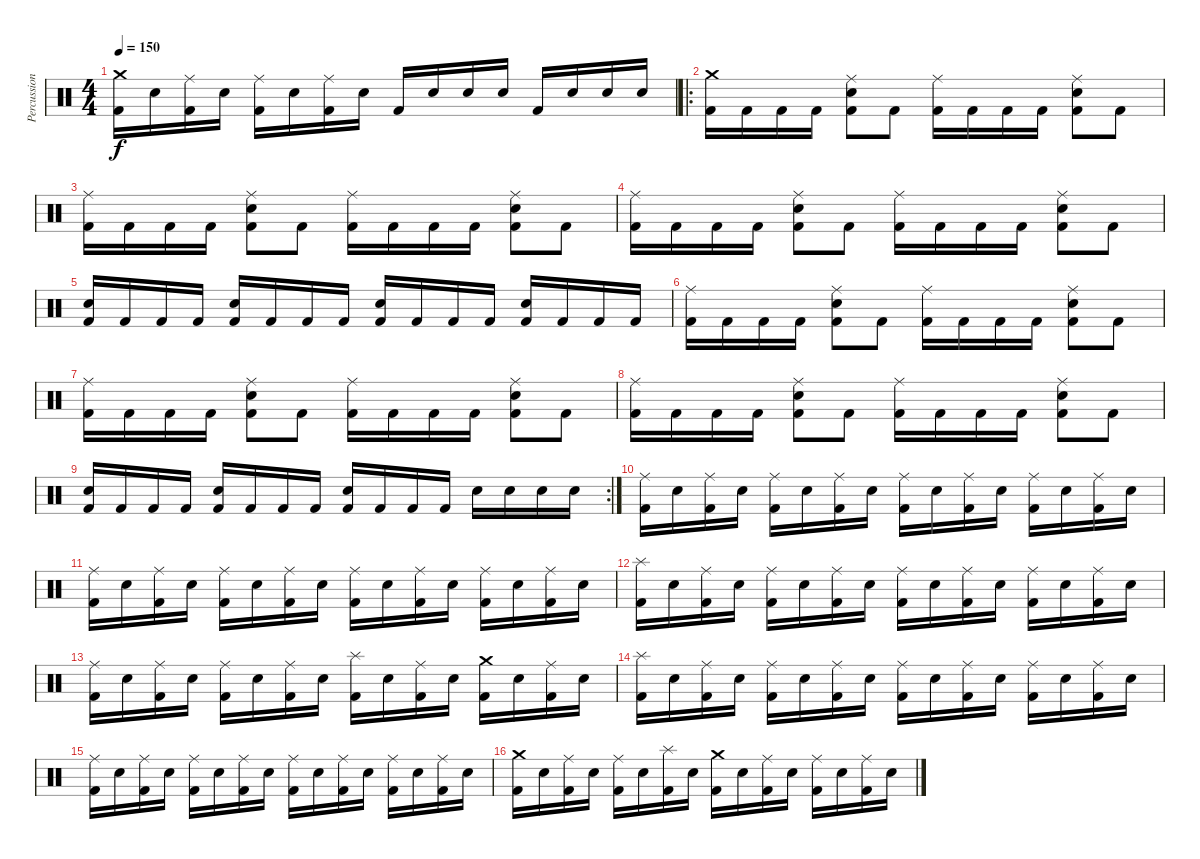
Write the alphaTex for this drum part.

\track ("Percussions" "Percussion") {instrument percussion}
\staff {score}
\articulation defaults
\ts (4 4)
\tempo 150
\clef neutral
\ks c
("Crash medium (hit)" "Kick (hit) 2").16{dy f} "Snare (hit) 2".16 ("Ride (middle)" "Kick (hit) 2").16 "Snare (hit) 2".16 ("Ride (middle)" "Kick (hit) 2").16 "Snare (hit) 2".16 ("Ride (middle)" "Kick (hit) 2").16 "Snare (hit) 2".16 "Kick (hit) 2".16 "Snare (hit) 2".16 "Snare (hit) 2".16 "Snare (hit) 2".16 "Kick (hit) 2".16 "Snare (hit) 2".16 "Snare (hit) 2".16 "Snare (hit) 2".16 |
\ro
("Crash medium (hit)" "Kick (hit) 2").16 "Kick (hit) 2".16 "Kick (hit) 2".16 "Kick (hit) 2".16 ("Ride (middle)" "Snare (hit) 2" "Kick (hit) 2").8 "Kick (hit) 2".8 ("Ride (middle)" "Kick (hit) 2").16 "Kick (hit) 2".16 "Kick (hit) 2".16 "Kick (hit) 2".16 ("Ride (middle)" "Snare (hit) 2" "Kick (hit) 2").8 "Kick (hit) 2".8 |
("Ride (middle)" "Kick (hit) 2").16 "Kick (hit) 2".16 "Kick (hit) 2".16 "Kick (hit) 2".16 ("Ride (middle)" "Snare (hit) 2" "Kick (hit) 2").8 "Kick (hit) 2".8 ("Ride (middle)" "Kick (hit) 2").16 "Kick (hit) 2".16 "Kick (hit) 2".16 "Kick (hit) 2".16 ("Ride (middle)" "Snare (hit) 2" "Kick (hit) 2").8 "Kick (hit) 2".8 |
("Ride (middle)" "Kick (hit) 2").16 "Kick (hit) 2".16 "Kick (hit) 2".16 "Kick (hit) 2".16 ("Ride (middle)" "Snare (hit) 2" "Kick (hit) 2").8 "Kick (hit) 2".8 ("Ride (middle)" "Kick (hit) 2").16 "Kick (hit) 2".16 "Kick (hit) 2".16 "Kick (hit) 2".16 ("Ride (middle)" "Snare (hit) 2" "Kick (hit) 2").8 "Kick (hit) 2".8 |
("Snare (hit) 2" "Kick (hit) 2").16 "Kick (hit) 2".16 "Kick (hit) 2".16 "Kick (hit) 2".16 ("Snare (hit) 2" "Kick (hit) 2").16 "Kick (hit) 2".16 "Kick (hit) 2".16 "Kick (hit) 2".16 ("Snare (hit) 2" "Kick (hit) 2").16 "Kick (hit) 2".16 "Kick (hit) 2".16 "Kick (hit) 2".16 ("Snare (hit) 2" "Kick (hit) 2").16 "Kick (hit) 2".16 "Kick (hit) 2".16 "Kick (hit) 2".16 |
("Ride (middle)" "Kick (hit) 2").16 "Kick (hit) 2".16 "Kick (hit) 2".16 "Kick (hit) 2".16 ("Ride (middle)" "Snare (hit) 2" "Kick (hit) 2").8 "Kick (hit) 2".8 ("Ride (middle)" "Kick (hit) 2").16 "Kick (hit) 2".16 "Kick (hit) 2".16 "Kick (hit) 2".16 ("Ride (middle)" "Snare (hit) 2" "Kick (hit) 2").8 "Kick (hit) 2".8 |
("Ride (middle)" "Kick (hit) 2").16 "Kick (hit) 2".16 "Kick (hit) 2".16 "Kick (hit) 2".16 ("Ride (middle)" "Snare (hit) 2" "Kick (hit) 2").8 "Kick (hit) 2".8 ("Ride (middle)" "Kick (hit) 2").16 "Kick (hit) 2".16 "Kick (hit) 2".16 "Kick (hit) 2".16 ("Ride (middle)" "Snare (hit) 2" "Kick (hit) 2").8 "Kick (hit) 2".8 |
("Ride (middle)" "Kick (hit) 2").16 "Kick (hit) 2".16 "Kick (hit) 2".16 "Kick (hit) 2".16 ("Ride (middle)" "Snare (hit) 2" "Kick (hit) 2").8 "Kick (hit) 2".8 ("Ride (middle)" "Kick (hit) 2").16 "Kick (hit) 2".16 "Kick (hit) 2".16 "Kick (hit) 2".16 ("Ride (middle)" "Snare (hit) 2" "Kick (hit) 2").8 "Kick (hit) 2".8 |
\rc 2
("Snare (hit) 2" "Kick (hit) 2").16 "Kick (hit) 2".16 "Kick (hit) 2".16 "Kick (hit) 2".16 ("Snare (hit) 2" "Kick (hit) 2").16 "Kick (hit) 2".16 "Kick (hit) 2".16 "Kick (hit) 2".16 ("Snare (hit) 2" "Kick (hit) 2").16 "Kick (hit) 2".16 "Kick (hit) 2".16 "Kick (hit) 2".16 "Snare (hit) 2".16 "Snare (hit) 2".16 "Snare (hit) 2".16 "Snare (hit) 2".16 |
("Ride (middle)" "Kick (hit) 2").16 "Snare (hit) 2".16 ("Ride (middle)" "Kick (hit) 2").16 "Snare (hit) 2".16 ("Ride (middle)" "Kick (hit) 2").16 "Snare (hit) 2".16 ("Ride (middle)" "Kick (hit) 2").16 "Snare (hit) 2".16 ("Ride (middle)" "Kick (hit) 2").16 "Snare (hit) 2".16 ("Ride (middle)" "Kick (hit) 2").16 "Snare (hit) 2".16 ("Ride (middle)" "Kick (hit) 2").16 "Snare (hit) 2".16 ("Ride (middle)" "Kick (hit) 2").16 "Snare (hit) 2".16 |
("Ride (middle)" "Kick (hit) 2").16 "Snare (hit) 2".16 ("Ride (middle)" "Kick (hit) 2").16 "Snare (hit) 2".16 ("Ride (middle)" "Kick (hit) 2").16 "Snare (hit) 2".16 ("Ride (middle)" "Kick (hit) 2").16 "Snare (hit) 2".16 ("Ride (middle)" "Kick (hit) 2").16 "Snare (hit) 2".16 ("Ride (middle)" "Kick (hit) 2").16 "Snare (hit) 2".16 ("Ride (middle)" "Kick (hit) 2").16 "Snare (hit) 2".16 ("Ride (middle)" "Kick (hit) 2").16 "Snare (hit) 2".16 |
("Splash (hit)" "Kick (hit) 2").16 "Snare (hit) 2".16 ("Ride (middle)" "Kick (hit) 2").16 "Snare (hit) 2".16 ("Ride (middle)" "Kick (hit) 2").16 "Snare (hit) 2".16 ("Ride (middle)" "Kick (hit) 2").16 "Snare (hit) 2".16 ("Ride (middle)" "Kick (hit) 2").16 "Snare (hit) 2".16 ("Ride (middle)" "Kick (hit) 2").16 "Snare (hit) 2".16 ("Ride (middle)" "Kick (hit) 2").16 "Snare (hit) 2".16 ("Ride (middle)" "Kick (hit) 2").16 "Snare (hit) 2".16 |
("Ride (middle)" "Kick (hit) 2").16 "Snare (hit) 2".16 ("Ride (middle)" "Kick (hit) 2").16 "Snare (hit) 2".16 ("Ride (middle)" "Kick (hit) 2").16 "Snare (hit) 2".16 ("Ride (middle)" "Kick (hit) 2").16 "Snare (hit) 2".16 ("Splash (hit)" "Kick (hit) 2").16 "Snare (hit) 2".16 ("Ride (middle)" "Kick (hit) 2").16 "Snare (hit) 2".16 ("Crash medium (hit)" "Kick (hit) 2").16 "Snare (hit) 2".16 ("Ride (middle)" "Kick (hit) 2").16 "Snare (hit) 2".16 |
("Splash (hit)" "Kick (hit) 2").16 "Snare (hit) 2".16 ("Ride (middle)" "Kick (hit) 2").16 "Snare (hit) 2".16 ("Ride (middle)" "Kick (hit) 2").16 "Snare (hit) 2".16 ("Ride (middle)" "Kick (hit) 2").16 "Snare (hit) 2".16 ("Ride (middle)" "Kick (hit) 2").16 "Snare (hit) 2".16 ("Ride (middle)" "Kick (hit) 2").16 "Snare (hit) 2".16 ("Ride (middle)" "Kick (hit) 2").16 "Snare (hit) 2".16 ("Ride (middle)" "Kick (hit) 2").16 "Snare (hit) 2".16 |
("Ride (middle)" "Kick (hit) 2").16 "Snare (hit) 2".16 ("Ride (middle)" "Kick (hit) 2").16 "Snare (hit) 2".16 ("Ride (middle)" "Kick (hit) 2").16 "Snare (hit) 2".16 ("Ride (middle)" "Kick (hit) 2").16 "Snare (hit) 2".16 ("Ride (middle)" "Kick (hit) 2").16 "Snare (hit) 2".16 ("Ride (middle)" "Kick (hit) 2").16 "Snare (hit) 2".16 ("Ride (middle)" "Kick (hit) 2").16 "Snare (hit) 2".16 ("Ride (middle)" "Kick (hit) 2").16 "Snare (hit) 2".16 |
("Crash medium (hit)" "Kick (hit) 2").16 "Snare (hit) 2".16 ("Ride (middle)" "Kick (hit) 2").16 "Snare (hit) 2".16 ("Ride (middle)" "Kick (hit) 2").16 "Snare (hit) 2".16 ("Splash (hit)" "Kick (hit) 2").16 "Snare (hit) 2".16 ("Crash medium (hit)" "Kick (hit) 2").16 "Snare (hit) 2".16 ("Ride (middle)" "Kick (hit) 2").16 "Snare (hit) 2".16 ("Ride (middle)" "Kick (hit) 2").16 "Snare (hit) 2".16 ("Ride (middle)" "Kick (hit) 2").16 "Snare (hit) 2".16
